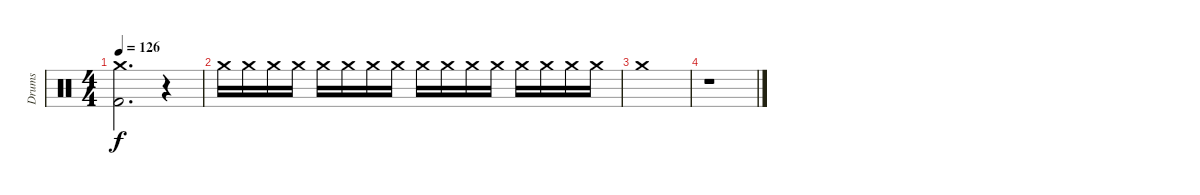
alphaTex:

\track ("Drums" "Drums") {instrument percussion}
\staff {score}
\articulation defaults
\ts (4 4)
\tempo 126
\clef neutral
\ks c
("Crash medium (hit)"{t} "Kick (hit) 2"{t}).2{d dy f} r.4{volume 0} |
"Crash medium (hit)".16{volume 16} "Crash medium (hit)".16 "Crash medium (hit)".16 "Crash medium (hit)".16 "Crash medium (hit)".16 "Crash medium (hit)".16 "Crash medium (hit)".16 "Crash medium (hit)".16 "Crash medium (hit)".16 "Crash medium (hit)".16 "Crash medium (hit)".16 "Crash medium (hit)".16 "Crash medium (hit)".16 "Crash medium (hit)".16 "Crash medium (hit)".16 "Crash medium (hit)".16 |
"Crash medium (hit)".1 |
r.1
